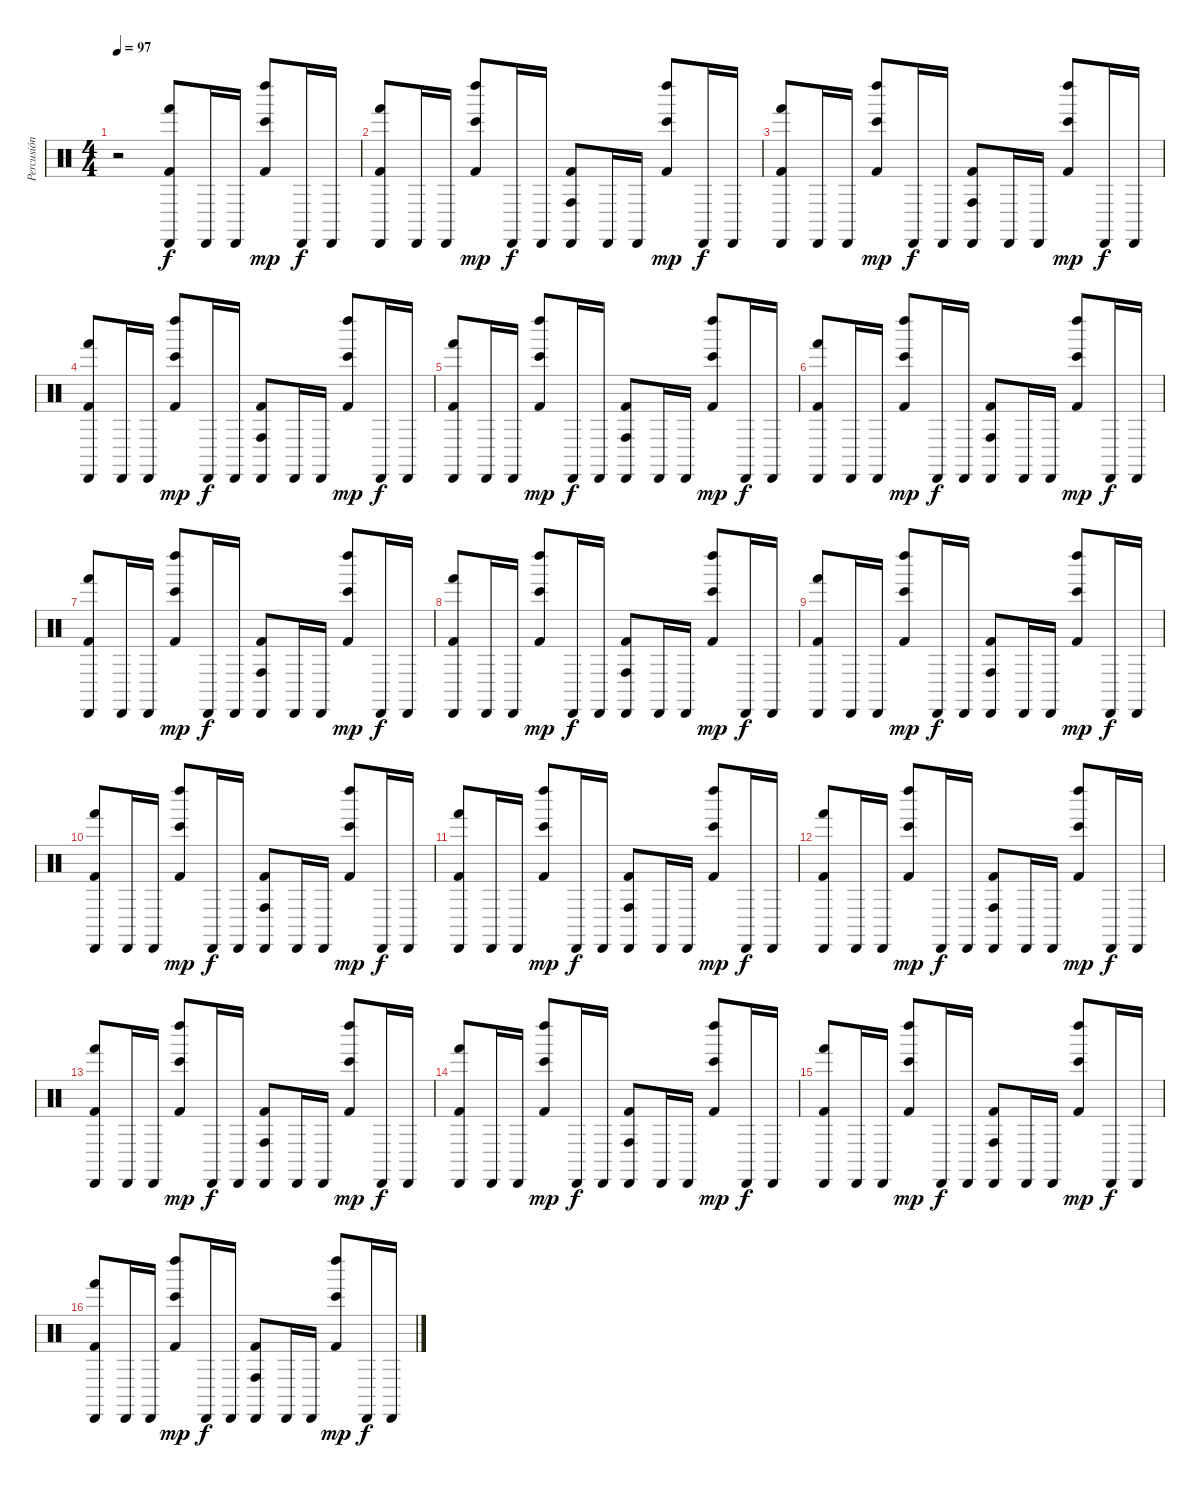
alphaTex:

\track ("Percusión" "Percusión") {instrument percussion}
\staff {score}
\articulation defaults
\ts (4 4)
\tempo 97
\clef neutral
\ks c
r.2{dy f} ("Hand (hit)" "Cabasa (hit)" "Kick (hit) 2").8 "Cabasa (hit)".16 "Cabasa (hit)".16 ("Bongo High (hit)" "Kick (hit) 2" "Left Maraca (hit)").8{dy mp} "Cabasa (hit)".16{dy f} "Cabasa (hit)".16 |
("Hand (hit)" "Cabasa (hit)" "Kick (hit) 2").8 "Cabasa (hit)".16 "Cabasa (hit)".16 ("Bongo High (hit)" "Kick (hit) 2" "Left Maraca (hit)").8{dy mp} "Cabasa (hit)".16{dy f} "Cabasa (hit)".16 ("Conga high (hit)" "Cabasa (hit)" "Kick (hit) 2").8 "Cabasa (hit)".16 "Cabasa (hit)".16 ("Bongo High (hit)" "Kick (hit) 2" "Left Maraca (hit)").8{dy mp} "Cabasa (hit)".16{dy f} "Cabasa (hit)".16 |
("Hand (hit)" "Cabasa (hit)" "Kick (hit) 2").8 "Cabasa (hit)".16 "Cabasa (hit)".16 ("Bongo High (hit)" "Kick (hit) 2" "Left Maraca (hit)").8{dy mp} "Cabasa (hit)".16{dy f} "Cabasa (hit)".16 ("Conga high (hit)" "Cabasa (hit)" "Kick (hit) 2").8 "Cabasa (hit)".16 "Cabasa (hit)".16 ("Bongo High (hit)" "Kick (hit) 2" "Left Maraca (hit)").8{dy mp} "Cabasa (hit)".16{dy f} "Cabasa (hit)".16 |
("Hand (hit)" "Cabasa (hit)" "Kick (hit) 2").8 "Cabasa (hit)".16 "Cabasa (hit)".16 ("Bongo High (hit)" "Kick (hit) 2" "Left Maraca (hit)").8{dy mp} "Cabasa (hit)".16{dy f} "Cabasa (hit)".16 ("Conga high (hit)" "Cabasa (hit)" "Kick (hit) 2").8 "Cabasa (hit)".16 "Cabasa (hit)".16 ("Bongo High (hit)" "Kick (hit) 2" "Left Maraca (hit)").8{dy mp} "Cabasa (hit)".16{dy f} "Cabasa (hit)".16 |
("Hand (hit)" "Cabasa (hit)" "Kick (hit) 2").8 "Cabasa (hit)".16 "Cabasa (hit)".16 ("Bongo High (hit)" "Kick (hit) 2" "Left Maraca (hit)").8{dy mp} "Cabasa (hit)".16{dy f} "Cabasa (hit)".16 ("Conga high (hit)" "Cabasa (hit)" "Kick (hit) 2").8 "Cabasa (hit)".16 "Cabasa (hit)".16 ("Bongo High (hit)" "Kick (hit) 2" "Left Maraca (hit)").8{dy mp} "Cabasa (hit)".16{dy f} "Cabasa (hit)".16 |
("Hand (hit)" "Cabasa (hit)" "Kick (hit) 2").8 "Cabasa (hit)".16 "Cabasa (hit)".16 ("Bongo High (hit)" "Kick (hit) 2" "Left Maraca (hit)").8{dy mp} "Cabasa (hit)".16{dy f} "Cabasa (hit)".16 ("Conga high (hit)" "Cabasa (hit)" "Kick (hit) 2").8 "Cabasa (hit)".16 "Cabasa (hit)".16 ("Bongo High (hit)" "Kick (hit) 2" "Left Maraca (hit)").8{dy mp} "Cabasa (hit)".16{dy f} "Cabasa (hit)".16 |
("Hand (hit)" "Cabasa (hit)" "Kick (hit) 2").8 "Cabasa (hit)".16 "Cabasa (hit)".16 ("Bongo High (hit)" "Kick (hit) 2" "Left Maraca (hit)").8{dy mp} "Cabasa (hit)".16{dy f} "Cabasa (hit)".16 ("Conga high (hit)" "Cabasa (hit)" "Kick (hit) 2").8 "Cabasa (hit)".16 "Cabasa (hit)".16 ("Bongo High (hit)" "Kick (hit) 2" "Left Maraca (hit)").8{dy mp} "Cabasa (hit)".16{dy f} "Cabasa (hit)".16 |
("Hand (hit)" "Cabasa (hit)" "Kick (hit) 2").8 "Cabasa (hit)".16 "Cabasa (hit)".16 ("Bongo High (hit)" "Kick (hit) 2" "Left Maraca (hit)").8{dy mp} "Cabasa (hit)".16{dy f} "Cabasa (hit)".16 ("Conga high (hit)" "Cabasa (hit)" "Kick (hit) 2").8 "Cabasa (hit)".16 "Cabasa (hit)".16 ("Bongo High (hit)" "Kick (hit) 2" "Left Maraca (hit)").8{dy mp} "Cabasa (hit)".16{dy f} "Cabasa (hit)".16 |
("Hand (hit)" "Cabasa (hit)" "Kick (hit) 2").8 "Cabasa (hit)".16 "Cabasa (hit)".16 ("Bongo High (hit)" "Kick (hit) 2" "Left Maraca (hit)").8{dy mp} "Cabasa (hit)".16{dy f} "Cabasa (hit)".16 ("Conga high (hit)" "Cabasa (hit)" "Kick (hit) 2").8 "Cabasa (hit)".16 "Cabasa (hit)".16 ("Bongo High (hit)" "Kick (hit) 2" "Left Maraca (hit)").8{dy mp} "Cabasa (hit)".16{dy f} "Cabasa (hit)".16 |
("Hand (hit)" "Cabasa (hit)" "Kick (hit) 2").8 "Cabasa (hit)".16 "Cabasa (hit)".16 ("Bongo High (hit)" "Kick (hit) 2" "Left Maraca (hit)").8{dy mp} "Cabasa (hit)".16{dy f} "Cabasa (hit)".16 ("Conga high (hit)" "Cabasa (hit)" "Kick (hit) 2").8 "Cabasa (hit)".16 "Cabasa (hit)".16 ("Bongo High (hit)" "Kick (hit) 2" "Left Maraca (hit)").8{dy mp} "Cabasa (hit)".16{dy f} "Cabasa (hit)".16 |
("Hand (hit)" "Cabasa (hit)" "Kick (hit) 2").8 "Cabasa (hit)".16 "Cabasa (hit)".16 ("Bongo High (hit)" "Kick (hit) 2" "Left Maraca (hit)").8{dy mp} "Cabasa (hit)".16{dy f} "Cabasa (hit)".16 ("Conga high (hit)" "Cabasa (hit)" "Kick (hit) 2").8 "Cabasa (hit)".16 "Cabasa (hit)".16 ("Bongo High (hit)" "Kick (hit) 2" "Left Maraca (hit)").8{dy mp} "Cabasa (hit)".16{dy f} "Cabasa (hit)".16 |
("Hand (hit)" "Cabasa (hit)" "Kick (hit) 2").8 "Cabasa (hit)".16 "Cabasa (hit)".16 ("Bongo High (hit)" "Kick (hit) 2" "Left Maraca (hit)").8{dy mp} "Cabasa (hit)".16{dy f} "Cabasa (hit)".16 ("Conga high (hit)" "Cabasa (hit)" "Kick (hit) 2").8 "Cabasa (hit)".16 "Cabasa (hit)".16 ("Bongo High (hit)" "Kick (hit) 2" "Left Maraca (hit)").8{dy mp} "Cabasa (hit)".16{dy f} "Cabasa (hit)".16 |
("Hand (hit)" "Cabasa (hit)" "Kick (hit) 2").8 "Cabasa (hit)".16 "Cabasa (hit)".16 ("Bongo High (hit)" "Kick (hit) 2" "Left Maraca (hit)").8{dy mp} "Cabasa (hit)".16{dy f} "Cabasa (hit)".16 ("Conga high (hit)" "Cabasa (hit)" "Kick (hit) 2").8 "Cabasa (hit)".16 "Cabasa (hit)".16 ("Bongo High (hit)" "Kick (hit) 2" "Left Maraca (hit)").8{dy mp} "Cabasa (hit)".16{dy f} "Cabasa (hit)".16 |
("Hand (hit)" "Cabasa (hit)" "Kick (hit) 2").8 "Cabasa (hit)".16 "Cabasa (hit)".16 ("Bongo High (hit)" "Kick (hit) 2" "Left Maraca (hit)").8{dy mp} "Cabasa (hit)".16{dy f} "Cabasa (hit)".16 ("Conga high (hit)" "Cabasa (hit)" "Kick (hit) 2").8 "Cabasa (hit)".16 "Cabasa (hit)".16 ("Bongo High (hit)" "Kick (hit) 2" "Left Maraca (hit)").8{dy mp} "Cabasa (hit)".16{dy f} "Cabasa (hit)".16 |
("Hand (hit)" "Cabasa (hit)" "Kick (hit) 2").8 "Cabasa (hit)".16 "Cabasa (hit)".16 ("Bongo High (hit)" "Kick (hit) 2" "Left Maraca (hit)").8{dy mp} "Cabasa (hit)".16{dy f} "Cabasa (hit)".16 ("Conga high (hit)" "Cabasa (hit)" "Kick (hit) 2").8 "Cabasa (hit)".16 "Cabasa (hit)".16 ("Bongo High (hit)" "Kick (hit) 2" "Left Maraca (hit)").8{dy mp} "Cabasa (hit)".16{dy f} "Cabasa (hit)".16 |
("Hand (hit)" "Cabasa (hit)" "Kick (hit) 2").8 "Cabasa (hit)".16 "Cabasa (hit)".16 ("Bongo High (hit)" "Kick (hit) 2" "Left Maraca (hit)").8{dy mp} "Cabasa (hit)".16{dy f} "Cabasa (hit)".16 ("Conga high (hit)" "Cabasa (hit)" "Kick (hit) 2").8 "Cabasa (hit)".16 "Cabasa (hit)".16 ("Bongo High (hit)" "Kick (hit) 2" "Left Maraca (hit)").8{dy mp} "Cabasa (hit)".16{dy f} "Cabasa (hit)".16
